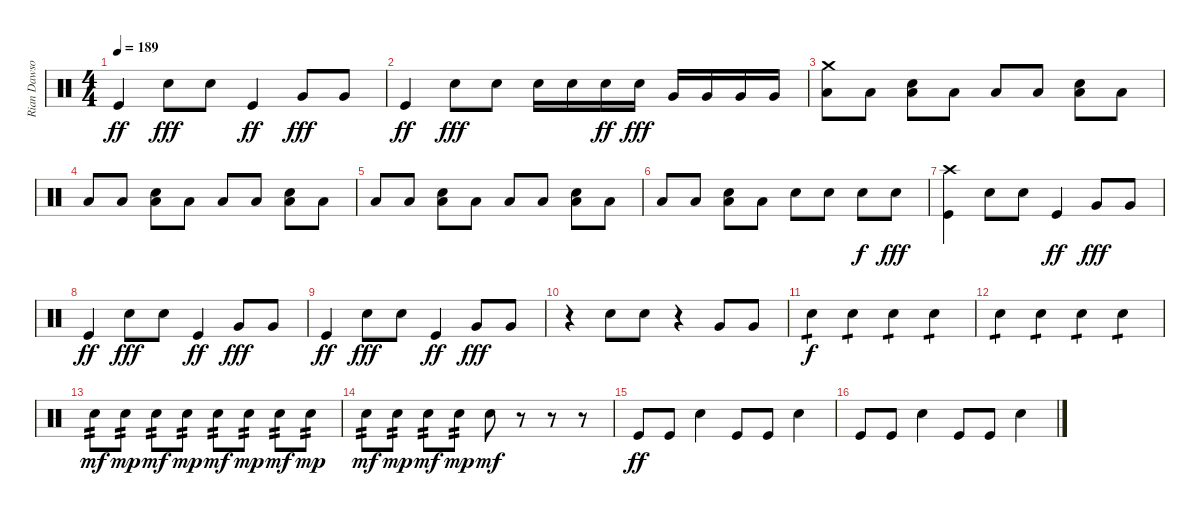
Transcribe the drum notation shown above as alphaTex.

\track ("Rian Dawson" "Rian Dawso") {instrument percussion}
\staff {score}
\articulation defaults
\ts (4 4)
\tempo 189
\clef neutral
\ks c "Kick (hit)".4{dy ff} "Snare (hit) 2".8{dy fff} "Snare (hit) 2".8 "Kick (hit)".4{dy ff} "Very Low Tom (hit)".8{dy fff} "Very Low Tom (hit)".8
|
"Kick (hit)".4{dy ff} "Snare (hit) 2".8{dy fff} "Snare (hit) 2".8 "Snare (hit) 2".16 "Snare (hit) 2".16 "Snare (hit) 2".16{dy ff} "Snare (hit) 2".16{dy fff} "Very Low Tom (hit)".16 "Very Low Tom (hit)".16 "Very Low Tom (hit)".16 "Very Low Tom (hit)".16 |
("Crash medium (hit)" "Low Tom (hit)").8 "Low Tom (hit)".8 ("Low Tom (hit)" "Snare (hit) 2").8 "Low Tom (hit)".8 "Low Tom (hit)".8 "Low Tom (hit)".8 ("Low Tom (hit)" "Snare (hit) 2").8 "Low Tom (hit)".8 |
"Low Tom (hit)".8 "Low Tom (hit)".8 ("Low Tom (hit)" "Snare (hit) 2").8 "Low Tom (hit)".8 "Low Tom (hit)".8 "Low Tom (hit)".8 ("Low Tom (hit)" "Snare (hit) 2").8 "Low Tom (hit)".8 |
"Low Tom (hit)".8 "Low Tom (hit)".8 ("Low Tom (hit)" "Snare (hit) 2").8 "Low Tom (hit)".8 "Low Tom (hit)".8 "Low Tom (hit)".8 ("Low Tom (hit)" "Snare (hit) 2").8 "Low Tom (hit)".8 |
"Low Tom (hit)".8 "Low Tom (hit)".8 ("Low Tom (hit)" "Snare (hit) 2").8 "Low Tom (hit)".8 "Snare (hit) 2".8 "Snare (hit) 2".8 "Snare (hit) 2".8{dy f} "Snare (hit) 2".8{dy fff} |
("Crash high (hit)" "Kick (hit)").4 "Snare (hit) 2".8 "Snare (hit) 2".8 "Kick (hit)".4{dy ff} "Very Low Tom (hit)".8{dy fff} "Very Low Tom (hit)".8 |
"Kick (hit)".4{dy ff} "Snare (hit) 2".8{dy fff} "Snare (hit) 2".8 "Kick (hit)".4{dy ff} "Very Low Tom (hit)".8{dy fff} "Very Low Tom (hit)".8 |
"Kick (hit)".4{dy ff} "Snare (hit) 2".8{dy fff} "Snare (hit) 2".8 "Kick (hit)".4{dy ff} "Very Low Tom (hit)".8{dy fff} "Very Low Tom (hit)".8 |
r.4 "Snare (hit) 2".8 "Snare (hit) 2".8 r.4 "Very Low Tom (hit)".8 "Very Low Tom (hit)".8 |
"Snare (hit) 2".4{tp 1 dy f} "Snare (hit) 2".4{tp 1} "Snare (hit) 2".4{tp 1} "Snare (hit) 2".4{tp 1} |
"Snare (hit) 2".4{tp 1} "Snare (hit) 2".4{tp 1} "Snare (hit) 2".4{tp 1} "Snare (hit) 2".4{tp 1} |
"Snare (hit) 2".8{tp 2 dy mf} "Snare (hit) 2".8{tp 2 dy mp} "Snare (hit) 2".8{tp 2 dy mf} "Snare (hit) 2".8{tp 2 dy mp} "Snare (hit) 2".8{tp 2 dy mf} "Snare (hit) 2".8{tp 2 dy mp} "Snare (hit) 2".8{tp 2 dy mf} "Snare (hit) 2".8{tp 2 dy mp} |
"Snare (hit) 2".8{tp 2 dy mf} "Snare (hit) 2".8{tp 2 dy mp} "Snare (hit) 2".8{tp 2 dy mf} "Snare (hit) 2".8{tp 2 dy mp} "Snare (hit) 2".8{dy mf} r.8 r.8 r.8 |
"Kick (hit)".8{dy ff} "Kick (hit)".8 "Snare (hit) 2".4 "Kick (hit)".8 "Kick (hit)".8 "Snare (hit) 2".4 |
"Kick (hit)".8 "Kick (hit)".8 "Snare (hit) 2".4 "Kick (hit)".8 "Kick (hit)".8 "Snare (hit) 2".4
